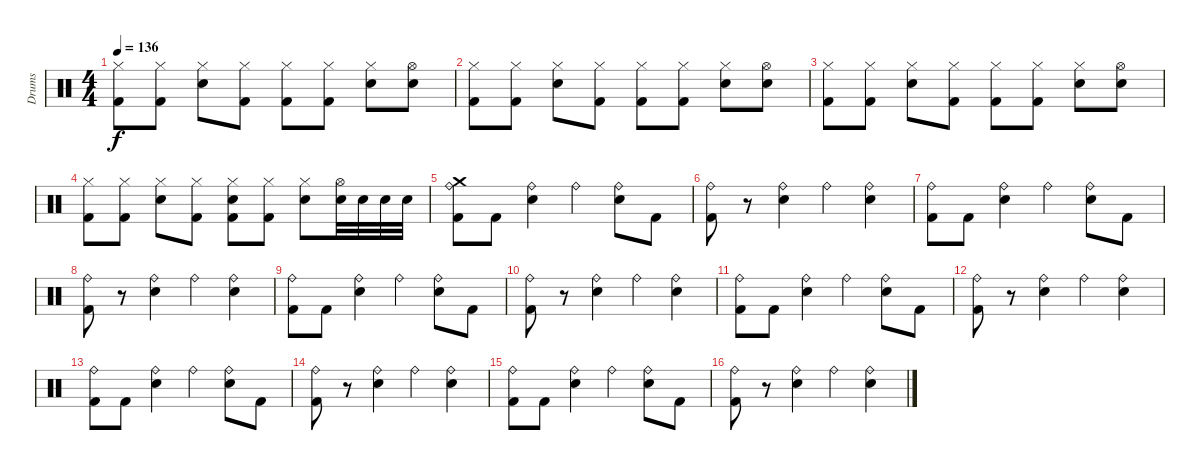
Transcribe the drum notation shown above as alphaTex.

\track ("Drums" "Drums") {instrument percussion}
\staff {score}
\articulation defaults
\ts (4 4)
\tempo 136
\clef neutral
\ks c
("Hi-Hat (closed)" "Kick (hit) 2").8{dy f} ("Hi-Hat (closed)" "Kick (hit) 2").8 ("Hi-Hat (closed)" "Electric Snare (hit)").8 ("Hi-Hat (closed)" "Kick (hit) 2").8 ("Hi-Hat (closed)" "Kick (hit) 2").8 ("Hi-Hat (closed)" "Kick (hit) 2").8 ("Hi-Hat (closed)" "Electric Snare (hit)").8 ("Hi-Hat (open)" "Electric Snare (hit)").8 |
("Hi-Hat (closed)" "Kick (hit) 2").8 ("Hi-Hat (closed)" "Kick (hit) 2").8 ("Hi-Hat (closed)" "Electric Snare (hit)").8 ("Hi-Hat (closed)" "Kick (hit) 2").8 ("Hi-Hat (closed)" "Kick (hit) 2").8 ("Hi-Hat (closed)" "Kick (hit) 2").8 ("Hi-Hat (closed)" "Electric Snare (hit)").8 ("Hi-Hat (open)" "Electric Snare (hit)").8 |
("Hi-Hat (closed)" "Kick (hit) 2").8 ("Hi-Hat (closed)" "Kick (hit) 2").8 ("Hi-Hat (closed)" "Electric Snare (hit)").8 ("Hi-Hat (closed)" "Kick (hit) 2").8 ("Hi-Hat (closed)" "Kick (hit) 2").8 ("Hi-Hat (closed)" "Kick (hit) 2").8 ("Hi-Hat (closed)" "Electric Snare (hit)").8 ("Hi-Hat (open)" "Electric Snare (hit)").8 |
("Hi-Hat (closed)" "Kick (hit) 2").8 ("Hi-Hat (closed)" "Kick (hit) 2").8 ("Hi-Hat (closed)" "Electric Snare (hit)").8 ("Hi-Hat (closed)" "Kick (hit) 2").8 ("Hi-Hat (closed)" "Electric Snare (hit)" "Kick (hit) 2").8 ("Hi-Hat (closed)" "Kick (hit) 2").8 ("Hi-Hat (closed)" "Electric Snare (hit)").8 ("Hi-Hat (open)" "Electric Snare (hit)").32 "Electric Snare (hit)".32 "Electric Snare (hit)".32 "Electric Snare (hit)".32 |
("Ride (bell)" "Crash medium (hit)" "Kick (hit) 2").8 "Kick (hit) 2".8 ("Ride (bell)" "Electric Snare (hit)").4 "Ride (bell)".4 ("Ride (bell)" "Electric Snare (hit)").8 "Kick (hit) 2".8 |
("Ride (bell)" "Kick (hit) 2").8 r.8 ("Ride (bell)" "Electric Snare (hit)").4 "Ride (bell)".4 ("Ride (bell)" "Electric Snare (hit)").4 |
("Ride (bell)" "Kick (hit) 2").8 "Kick (hit) 2".8 ("Ride (bell)" "Electric Snare (hit)").4 "Ride (bell)".4 ("Ride (bell)" "Electric Snare (hit)").8 "Kick (hit) 2".8 |
("Ride (bell)" "Kick (hit) 2").8 r.8 ("Ride (bell)" "Electric Snare (hit)").4 "Ride (bell)".4 ("Ride (bell)" "Electric Snare (hit)").4 |
("Ride (bell)" "Kick (hit) 2").8 "Kick (hit) 2".8 ("Ride (bell)" "Electric Snare (hit)").4 "Ride (bell)".4 ("Ride (bell)" "Electric Snare (hit)").8 "Kick (hit) 2".8 |
("Ride (bell)" "Kick (hit) 2").8 r.8 ("Ride (bell)" "Electric Snare (hit)").4 "Ride (bell)".4 ("Ride (bell)" "Electric Snare (hit)").4 |
("Ride (bell)" "Kick (hit) 2").8 "Kick (hit) 2".8 ("Ride (bell)" "Electric Snare (hit)").4 "Ride (bell)".4 ("Ride (bell)" "Electric Snare (hit)").8 "Kick (hit) 2".8 |
("Ride (bell)" "Kick (hit) 2").8 r.8 ("Ride (bell)" "Electric Snare (hit)").4 "Ride (bell)".4 ("Ride (bell)" "Electric Snare (hit)").4 |
("Ride (bell)" "Kick (hit) 2").8 "Kick (hit) 2".8 ("Ride (bell)" "Electric Snare (hit)").4 "Ride (bell)".4 ("Ride (bell)" "Electric Snare (hit)").8 "Kick (hit) 2".8 |
("Ride (bell)" "Kick (hit) 2").8 r.8 ("Ride (bell)" "Electric Snare (hit)").4 "Ride (bell)".4 ("Ride (bell)" "Electric Snare (hit)").4 |
("Ride (bell)" "Kick (hit) 2").8 "Kick (hit) 2".8 ("Ride (bell)" "Electric Snare (hit)").4 "Ride (bell)".4 ("Ride (bell)" "Electric Snare (hit)").8 "Kick (hit) 2".8 |
("Ride (bell)" "Kick (hit) 2").8 r.8 ("Ride (bell)" "Electric Snare (hit)").4 "Ride (bell)".4 ("Ride (bell)" "Electric Snare (hit)").4
